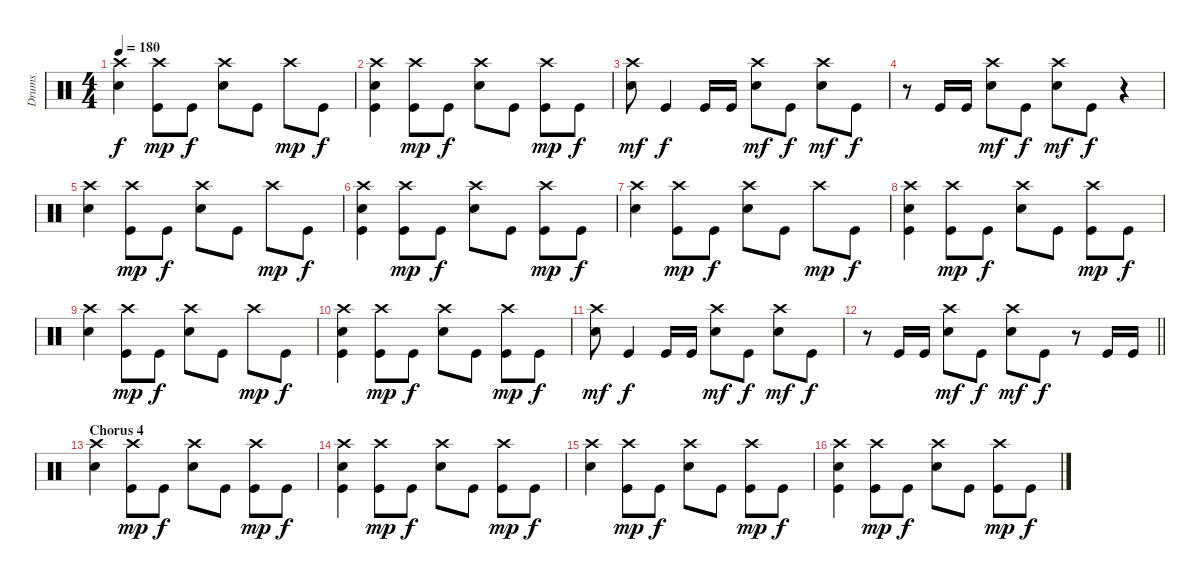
\track ("Drums" "Drums") {instrument percussion}
\staff {score}
\articulation defaults
\ts (4 4)
\tempo 180
\clef neutral
\ks c
("Crash high (hit)" "Snare (hit) 2").4{dy f} ("Crash high (hit)" "Kick (hit)").8{dy mp} "Kick (hit)".8{dy f} ("Snare (hit) 2" "Crash high (hit)").8 "Kick (hit)".8 "Crash high (hit)".8{dy mp} "Kick (hit)".8{dy f} |
("Snare (hit) 2" "Crash high (hit)" "Kick (hit)").4 ("Crash high (hit)" "Kick (hit)").8{dy mp} "Kick (hit)".8{dy f} ("Crash high (hit)" "Snare (hit) 2").8 "Kick (hit)".8 ("Crash high (hit)" "Kick (hit)").8{dy mp} "Kick (hit)".8{dy f} |
("Crash high (hit)" "Snare (hit) 2").8{dy mf} "Kick (hit)".4{dy f} "Kick (hit)".16 "Kick (hit)".16 ("Crash high (hit)" "Snare (hit) 2").8{dy mf} "Kick (hit)".8{dy f} ("Crash high (hit)" "Snare (hit) 2").8{dy mf} "Kick (hit)".8{dy f} |
r.8 "Kick (hit)".16 "Kick (hit)".16 ("Crash high (hit)" "Snare (hit) 2").8{dy mf} "Kick (hit)".8{dy f} ("Crash high (hit)" "Snare (hit) 2").8{dy mf} "Kick (hit)".8{dy f} r.4 |
("Crash high (hit)" "Snare (hit) 2").4 ("Crash high (hit)" "Kick (hit)").8{dy mp} "Kick (hit)".8{dy f} ("Snare (hit) 2" "Crash high (hit)").8 "Kick (hit)".8 "Crash high (hit)".8{dy mp} "Kick (hit)".8{dy f} |
("Snare (hit) 2" "Crash high (hit)" "Kick (hit)").4 ("Crash high (hit)" "Kick (hit)").8{dy mp} "Kick (hit)".8{dy f} ("Crash high (hit)" "Snare (hit) 2").8 "Kick (hit)".8 ("Crash high (hit)" "Kick (hit)").8{dy mp} "Kick (hit)".8{dy f} |
("Crash high (hit)" "Snare (hit) 2").4 ("Crash high (hit)" "Kick (hit)").8{dy mp} "Kick (hit)".8{dy f} ("Snare (hit) 2" "Crash high (hit)").8 "Kick (hit)".8 "Crash high (hit)".8{dy mp} "Kick (hit)".8{dy f} |
("Snare (hit) 2" "Crash high (hit)" "Kick (hit)").4 ("Crash high (hit)" "Kick (hit)").8{dy mp} "Kick (hit)".8{dy f} ("Crash high (hit)" "Snare (hit) 2").8 "Kick (hit)".8 ("Crash high (hit)" "Kick (hit)").8{dy mp} "Kick (hit)".8{dy f} |
("Crash high (hit)" "Snare (hit) 2").4 ("Crash high (hit)" "Kick (hit)").8{dy mp} "Kick (hit)".8{dy f} ("Snare (hit) 2" "Crash high (hit)").8 "Kick (hit)".8 "Crash high (hit)".8{dy mp} "Kick (hit)".8{dy f} |
("Snare (hit) 2" "Crash high (hit)" "Kick (hit)").4 ("Crash high (hit)" "Kick (hit)").8{dy mp} "Kick (hit)".8{dy f} ("Crash high (hit)" "Snare (hit) 2").8 "Kick (hit)".8 ("Crash high (hit)" "Kick (hit)").8{dy mp} "Kick (hit)".8{dy f} |
("Crash high (hit)" "Snare (hit) 2").8{dy mf} "Kick (hit)".4{dy f} "Kick (hit)".16 "Kick (hit)".16 ("Crash high (hit)" "Snare (hit) 2").8{dy mf} "Kick (hit)".8{dy f} ("Crash high (hit)" "Snare (hit) 2").8{dy mf} "Kick (hit)".8{dy f} |
\barLineRight lightlight
r.8 "Kick (hit)".16 "Kick (hit)".16 ("Crash high (hit)" "Snare (hit) 2").8{dy mf} "Kick (hit)".8{dy f} ("Crash high (hit)" "Snare (hit) 2").8{dy mf} "Kick (hit)".8{dy f} r.8 "Kick (hit)".16 "Kick (hit)".16 |
\section ("" "Chorus 4")
("Crash high (hit)" "Snare (hit) 2").4 ("Crash high (hit)" "Kick (hit)").8{dy mp} "Kick (hit)".8{dy f} ("Snare (hit) 2" "Crash high (hit)").8 "Kick (hit)".8 ("Crash high (hit)" "Kick (hit)").8{dy mp} "Kick (hit)".8{dy f} |
("Snare (hit) 2" "Crash high (hit)" "Kick (hit)").4 ("Crash high (hit)" "Kick (hit)").8{dy mp} "Kick (hit)".8{dy f} ("Crash high (hit)" "Snare (hit) 2").8 "Kick (hit)".8 ("Crash high (hit)" "Kick (hit)").8{dy mp} "Kick (hit)".8{dy f} |
("Crash high (hit)" "Snare (hit) 2").4 ("Crash high (hit)" "Kick (hit)").8{dy mp} "Kick (hit)".8{dy f} ("Snare (hit) 2" "Crash high (hit)").8 "Kick (hit)".8 ("Crash high (hit)" "Kick (hit)").8{dy mp} "Kick (hit)".8{dy f} |
("Snare (hit) 2" "Crash high (hit)" "Kick (hit)").4 ("Crash high (hit)" "Kick (hit)").8{dy mp} "Kick (hit)".8{dy f} ("Crash high (hit)" "Snare (hit) 2").8 "Kick (hit)".8 ("Crash high (hit)" "Kick (hit)").8{dy mp} "Kick (hit)".8{dy f}
